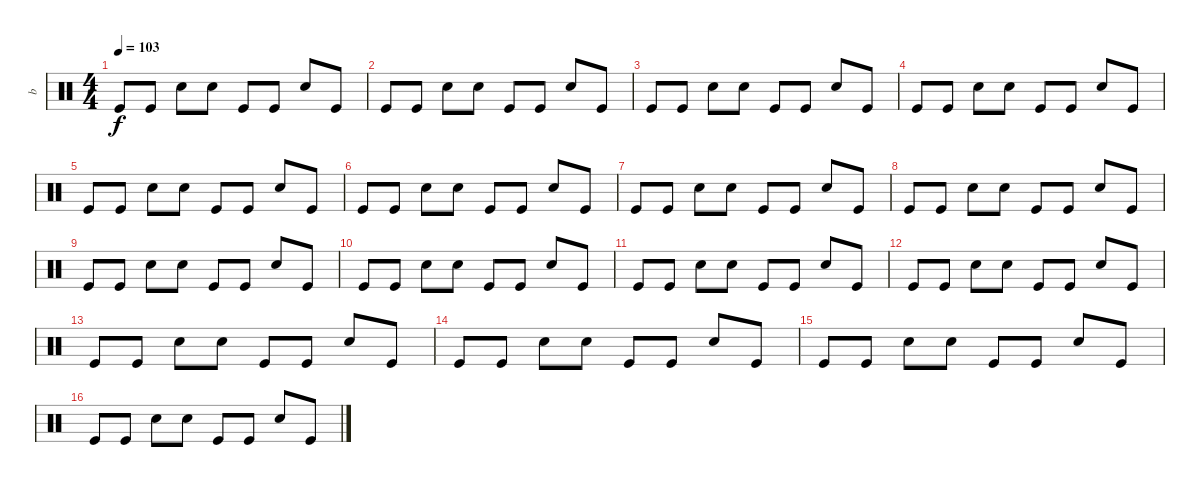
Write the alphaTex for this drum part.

\track ("b" "b") {instrument percussion}
\staff {score}
\articulation defaults
\ts (4 4)
\tempo 103
\clef neutral
\ks c "Kick (hit)".8{dy f} "Kick (hit)".8 "Electric Snare (hit)".8 "Electric Snare (hit)".8 "Kick (hit)".8 "Kick (hit)".8 "Electric Snare (hit)".8 "Kick (hit)".8
|
"Kick (hit)".8 "Kick (hit)".8 "Electric Snare (hit)".8 "Electric Snare (hit)".8 "Kick (hit)".8 "Kick (hit)".8 "Electric Snare (hit)".8 "Kick (hit)".8 |
"Kick (hit)".8 "Kick (hit)".8 "Electric Snare (hit)".8 "Electric Snare (hit)".8 "Kick (hit)".8 "Kick (hit)".8 "Electric Snare (hit)".8 "Kick (hit)".8 |
"Kick (hit)".8 "Kick (hit)".8 "Electric Snare (hit)".8 "Electric Snare (hit)".8 "Kick (hit)".8 "Kick (hit)".8 "Electric Snare (hit)".8 "Kick (hit)".8 |
"Kick (hit)".8 "Kick (hit)".8 "Electric Snare (hit)".8 "Electric Snare (hit)".8 "Kick (hit)".8 "Kick (hit)".8 "Electric Snare (hit)".8 "Kick (hit)".8 |
"Kick (hit)".8 "Kick (hit)".8 "Electric Snare (hit)".8 "Electric Snare (hit)".8 "Kick (hit)".8 "Kick (hit)".8 "Electric Snare (hit)".8 "Kick (hit)".8 |
"Kick (hit)".8 "Kick (hit)".8 "Electric Snare (hit)".8 "Electric Snare (hit)".8 "Kick (hit)".8 "Kick (hit)".8 "Electric Snare (hit)".8 "Kick (hit)".8 |
"Kick (hit)".8 "Kick (hit)".8 "Electric Snare (hit)".8 "Electric Snare (hit)".8 "Kick (hit)".8 "Kick (hit)".8 "Electric Snare (hit)".8 "Kick (hit)".8 |
"Kick (hit)".8 "Kick (hit)".8 "Electric Snare (hit)".8 "Electric Snare (hit)".8 "Kick (hit)".8 "Kick (hit)".8 "Electric Snare (hit)".8 "Kick (hit)".8 |
"Kick (hit)".8 "Kick (hit)".8 "Electric Snare (hit)".8 "Electric Snare (hit)".8 "Kick (hit)".8 "Kick (hit)".8 "Electric Snare (hit)".8 "Kick (hit)".8 |
"Kick (hit)".8 "Kick (hit)".8 "Electric Snare (hit)".8 "Electric Snare (hit)".8 "Kick (hit)".8 "Kick (hit)".8 "Electric Snare (hit)".8 "Kick (hit)".8 |
"Kick (hit)".8 "Kick (hit)".8 "Electric Snare (hit)".8 "Electric Snare (hit)".8 "Kick (hit)".8 "Kick (hit)".8 "Electric Snare (hit)".8 "Kick (hit)".8 |
"Kick (hit)".8 "Kick (hit)".8 "Electric Snare (hit)".8 "Electric Snare (hit)".8 "Kick (hit)".8 "Kick (hit)".8 "Electric Snare (hit)".8 "Kick (hit)".8 |
"Kick (hit)".8 "Kick (hit)".8 "Electric Snare (hit)".8 "Electric Snare (hit)".8 "Kick (hit)".8 "Kick (hit)".8 "Electric Snare (hit)".8 "Kick (hit)".8 |
"Kick (hit)".8 "Kick (hit)".8 "Electric Snare (hit)".8 "Electric Snare (hit)".8 "Kick (hit)".8 "Kick (hit)".8 "Electric Snare (hit)".8 "Kick (hit)".8 |
"Kick (hit)".8 "Kick (hit)".8 "Electric Snare (hit)".8 "Electric Snare (hit)".8 "Kick (hit)".8 "Kick (hit)".8 "Electric Snare (hit)".8 "Kick (hit)".8
